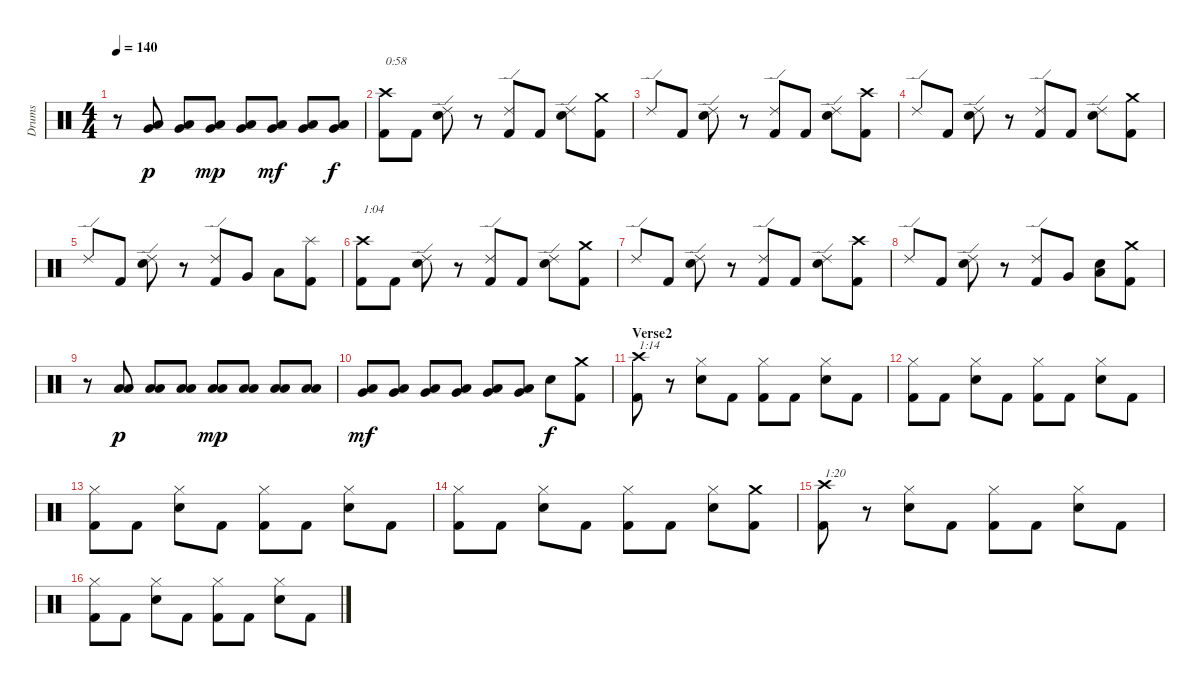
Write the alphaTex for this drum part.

\track ("Drums" "Drums") {instrument percussion}
\staff {score}
\articulation defaults
\ts (4 4)
\tempo 140
\clef neutral
\ks c
r.8{dy f} ("Low Floor Tom (hit)" "Very Low Tom (hit)").8{dy p} ("Low Floor Tom (hit)" "Very Low Tom (hit)").8 ("Low Floor Tom (hit)" "Very Low Tom (hit)").8{dy mp} ("Low Floor Tom (hit)" "Very Low Tom (hit)").8 ("Low Floor Tom (hit)" "Very Low Tom (hit)").8{dy mf} ("Low Floor Tom (hit)" "Very Low Tom (hit)").8 ("Low Floor Tom (hit)" "Very Low Tom (hit)").8{dy f} |
("Crash high (hit)" "Kick (hit) 2").8{txt "0:58"} "Kick (hit) 2".8 ("Ride (edge) 2" "Electric Snare (hit)").8 r.8 ("Ride (edge) 2" "Kick (hit) 2").8 "Kick (hit) 2".8 ("Ride (edge) 2" "Electric Snare (hit)").8 ("Crash medium (hit)" "Kick (hit) 2").8 |
"Ride (edge) 2".8 "Kick (hit) 2".8 ("Ride (edge) 2" "Electric Snare (hit)").8 r.8 ("Ride (edge) 2" "Kick (hit) 2").8 "Kick (hit) 2".8 ("Ride (edge) 2" "Electric Snare (hit)").8 ("Crash high (hit)" "Kick (hit) 2").8 |
"Ride (edge) 2".8 "Kick (hit) 2".8 ("Ride (edge) 2" "Electric Snare (hit)").8 r.8 ("Ride (edge) 2" "Kick (hit) 2").8 "Kick (hit) 2".8 ("Ride (edge) 2" "Electric Snare (hit)").8 ("Crash medium (hit)" "Kick (hit) 2").8 |
"Ride (edge) 2".8 "Kick (hit) 2".8 ("Ride (edge) 2" "Electric Snare (hit)").8 r.8 ("Ride (edge) 2" "Kick (hit) 2").8 "Very Low Tom (hit)".8 "Low Floor Tom (hit)".8 ("Splash (hit)" "Kick (hit) 2").8 |
("Crash high (hit)" "Kick (hit) 2").8{txt "1:04"} "Kick (hit) 2".8 ("Ride (edge) 2" "Electric Snare (hit)").8 r.8 ("Ride (edge) 2" "Kick (hit) 2").8 "Kick (hit) 2".8 ("Ride (edge) 2" "Electric Snare (hit)").8 ("Crash medium (hit)" "Kick (hit) 2").8 |
"Ride (edge) 2".8 "Kick (hit) 2".8 ("Ride (edge) 2" "Electric Snare (hit)").8 r.8 ("Ride (edge) 2" "Kick (hit) 2").8 "Kick (hit) 2".8 ("Ride (edge) 2" "Electric Snare (hit)").8 ("Crash high (hit)" "Kick (hit) 2").8 |
"Ride (edge) 2".8 "Kick (hit) 2".8 ("Ride (edge) 2" "Electric Snare (hit)").8 r.8 ("Ride (edge) 2" "Kick (hit) 2").8 "Very Low Tom (hit)".8 ("Low Floor Tom (hit)" "Electric Snare (hit)").8 ("Crash medium (hit)" "Kick (hit) 2").8 |
r.8 ("Low Floor Tom (hit)" "Low Tom (hit)").8{dy p} ("Low Floor Tom (hit)" "Low Tom (hit)").8 ("Low Floor Tom (hit)" "Low Tom (hit)").8 ("Low Floor Tom (hit)" "Low Tom (hit)").8{dy mp} ("Low Floor Tom (hit)" "Low Tom (hit)").8 ("Low Floor Tom (hit)" "Low Tom (hit)").8 ("Low Floor Tom (hit)" "Low Tom (hit)").8 |
("Low Floor Tom (hit)" "Very Low Tom (hit)").8{dy mf} ("Low Floor Tom (hit)" "Very Low Tom (hit)").8 ("Low Floor Tom (hit)" "Very Low Tom (hit)").8 ("Low Floor Tom (hit)" "Very Low Tom (hit)").8 ("Low Floor Tom (hit)" "Very Low Tom (hit)").8 ("Low Floor Tom (hit)" "Very Low Tom (hit)").8 "Electric Snare (hit)".8{dy f} ("Crash medium (hit)" "Kick (hit) 2").8 |
\section ("" "Verse2")
("Crash high (hit)" "Kick (hit) 2").8{txt "1:14"} r.8 ("Hi-Hat (closed)" "Electric Snare (hit)").8 "Kick (hit) 2".8 ("Hi-Hat (closed)" "Kick (hit) 2").8 "Kick (hit) 2".8 ("Hi-Hat (closed)" "Electric Snare (hit)").8 "Kick (hit) 2".8 |
("Hi-Hat (closed)" "Kick (hit) 2").8 "Kick (hit) 2".8 ("Hi-Hat (closed)" "Electric Snare (hit)").8 "Kick (hit) 2".8 ("Hi-Hat (closed)" "Kick (hit) 2").8 "Kick (hit) 2".8 ("Hi-Hat (closed)" "Electric Snare (hit)").8 "Kick (hit) 2".8 |
("Hi-Hat (closed)" "Kick (hit) 2").8 "Kick (hit) 2".8 ("Hi-Hat (closed)" "Electric Snare (hit)").8 "Kick (hit) 2".8 ("Hi-Hat (closed)" "Kick (hit) 2").8 "Kick (hit) 2".8 ("Hi-Hat (closed)" "Electric Snare (hit)").8 "Kick (hit) 2".8 |
("Hi-Hat (closed)" "Kick (hit) 2").8 "Kick (hit) 2".8 ("Hi-Hat (closed)" "Electric Snare (hit)").8 "Kick (hit) 2".8 ("Hi-Hat (closed)" "Kick (hit) 2").8 "Kick (hit) 2".8 ("Hi-Hat (closed)" "Electric Snare (hit)").8 ("Crash medium (hit)" "Kick (hit) 2").8 |
("Crash high (hit)" "Kick (hit) 2").8{txt "1:20"} r.8 ("Hi-Hat (closed)" "Electric Snare (hit)").8 "Kick (hit) 2".8 ("Hi-Hat (closed)" "Kick (hit) 2").8 "Kick (hit) 2".8 ("Hi-Hat (closed)" "Electric Snare (hit)").8 "Kick (hit) 2".8 |
("Hi-Hat (closed)" "Kick (hit) 2").8 "Kick (hit) 2".8 ("Hi-Hat (closed)" "Electric Snare (hit)").8 "Kick (hit) 2".8 ("Hi-Hat (closed)" "Kick (hit) 2").8 "Kick (hit) 2".8 ("Hi-Hat (closed)" "Electric Snare (hit)").8 "Kick (hit) 2".8
